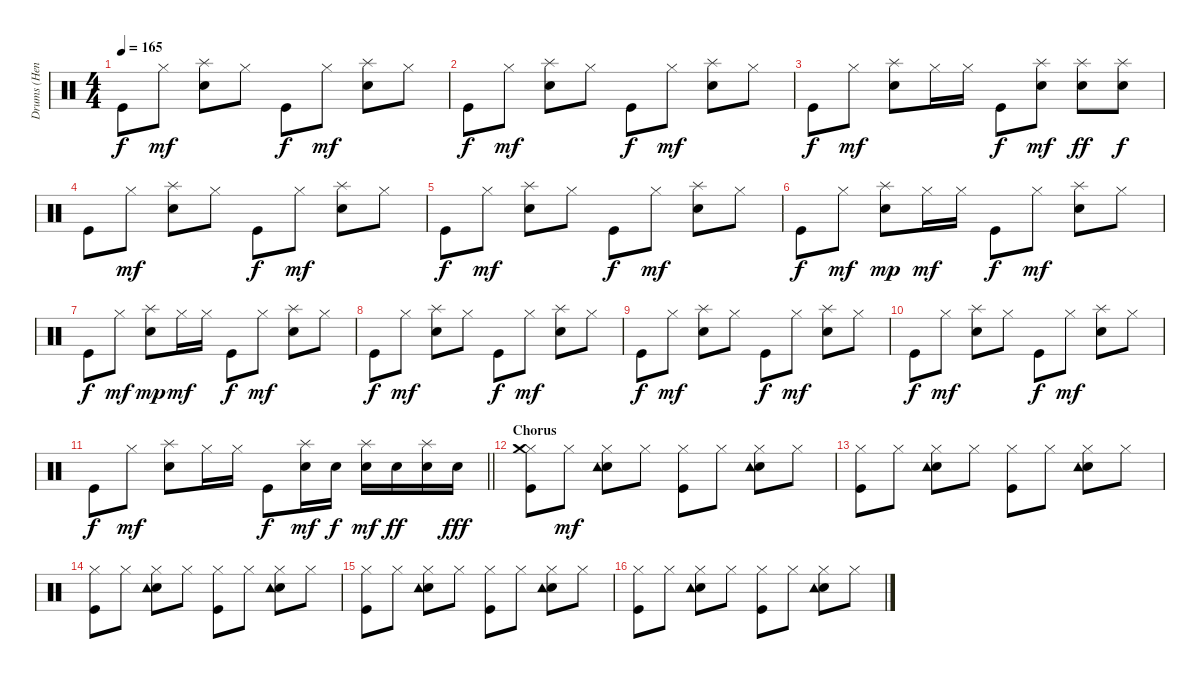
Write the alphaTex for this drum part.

\track ("Drums (Henry)" "Drums (Hen") {instrument percussion}
\staff {score}
\articulation defaults
\ts (4 4)
\tempo 165
\clef neutral
\ks c "Kick (hit)".8{dy f} "Hi-Hat (closed)".8{dy mf}
("Snare (hit) 2" "Splash (hit)").8 "Hi-Hat (closed)".8 "Kick (hit)".8{dy f} "Hi-Hat (closed)".8{dy mf} ("Snare (hit) 2" "Splash (hit)").8 "Hi-Hat (closed)".8 |
"Kick (hit)".8{dy f} "Hi-Hat (closed)".8{dy mf} ("Snare (hit) 2" "Splash (hit)").8 "Hi-Hat (closed)".8 "Kick (hit)".8{dy f} "Hi-Hat (closed)".8{dy mf} ("Snare (hit) 2" "Splash (hit)").8 "Hi-Hat (closed)".8 |
"Kick (hit)".8{dy f} "Hi-Hat (closed)".8{dy mf} ("Snare (hit) 2" "Splash (hit)").8 "Hi-Hat (closed)".16 "Hi-Hat (closed)".16 "Kick (hit)".8{dy f} ("Snare (hit) 2" "Splash (hit)").8{dy mf} ("Snare (hit) 2" "Splash (hit)").8{dy ff} ("Snare (hit) 2" "Splash (hit)").8{dy f} |
"Kick (hit)".8 "Hi-Hat (closed)".8{dy mf} ("Snare (hit) 2" "Splash (hit)").8 "Hi-Hat (closed)".8 "Kick (hit)".8{dy f} "Hi-Hat (closed)".8{dy mf} ("Snare (hit) 2" "Splash (hit)").8 "Hi-Hat (closed)".8 |
"Kick (hit)".8{dy f} "Hi-Hat (closed)".8{dy mf} ("Snare (hit) 2" "Splash (hit)").8 "Hi-Hat (closed)".8 "Kick (hit)".8{dy f} "Hi-Hat (closed)".8{dy mf} ("Snare (hit) 2" "Splash (hit)").8 "Hi-Hat (closed)".8 |
"Kick (hit)".8{dy f} "Hi-Hat (closed)".8{dy mf} ("Snare (hit) 2" "Splash (hit)").8{dy mp} "Hi-Hat (closed)".16{dy mf} "Hi-Hat (closed)".16 "Kick (hit)".8{dy f} "Hi-Hat (closed)".8{dy mf} ("Snare (hit) 2" "Splash (hit)").8 "Hi-Hat (closed)".8 |
"Kick (hit)".8{dy f} "Hi-Hat (closed)".8{dy mf} ("Snare (hit) 2" "Splash (hit)").8{dy mp} "Hi-Hat (closed)".16{dy mf} "Hi-Hat (closed)".16 "Kick (hit)".8{dy f} "Hi-Hat (closed)".8{dy mf} ("Snare (hit) 2" "Splash (hit)").8 "Hi-Hat (closed)".8 |
"Kick (hit)".8{dy f} "Hi-Hat (closed)".8{dy mf} ("Snare (hit) 2" "Splash (hit)").8 "Hi-Hat (closed)".8 "Kick (hit)".8{dy f} "Hi-Hat (closed)".8{dy mf} ("Snare (hit) 2" "Splash (hit)").8 "Hi-Hat (closed)".8 |
"Kick (hit)".8{dy f} "Hi-Hat (closed)".8{dy mf} ("Snare (hit) 2" "Splash (hit)").8 "Hi-Hat (closed)".8 "Kick (hit)".8{dy f} "Hi-Hat (closed)".8{dy mf} ("Snare (hit) 2" "Splash (hit)").8 "Hi-Hat (closed)".8 |
"Kick (hit)".8{dy f} "Hi-Hat (closed)".8{dy mf} ("Snare (hit) 2" "Splash (hit)").8 "Hi-Hat (closed)".8 "Kick (hit)".8{dy f} "Hi-Hat (closed)".8{dy mf} ("Snare (hit) 2" "Splash (hit)").8 "Hi-Hat (closed)".8 |
\barLineRight lightlight "Kick (hit)".8{dy f} "Hi-Hat (closed)".8{dy mf}
("Snare (hit) 2" "Splash (hit)").8 "Hi-Hat (closed)".16 "Hi-Hat (closed)".16 "Kick (hit)".8{dy f} ("Snare (hit) 2" "Splash (hit)").16{dy mf} "Snare (hit) 2".16{dy f} ("Snare (hit) 2" "Splash (hit)").16{dy mf} "Snare (hit) 2".16{dy ff} ("Snare (hit) 2" "Splash (hit)").16 "Snare (hit) 2".16{dy fff} |
\section ("" "Chorus")
("Kick (hit)" "Hi-Hat (closed)" "Crash medium (hit)").8 "Hi-Hat (closed)".8{dy mf} ("Snare (hit) 2" "Tambourine (hit)" "Hi-Hat (closed)").8 "Hi-Hat (closed)".8 ("Kick (hit)" "Hi-Hat (closed)").8 "Hi-Hat (closed)".8 ("Snare (hit) 2" "Tambourine (hit)" "Hi-Hat (closed)").8 "Hi-Hat (closed)".8 |
("Kick (hit)" "Hi-Hat (closed)").8 "Hi-Hat (closed)".8 ("Snare (hit) 2" "Tambourine (hit)" "Hi-Hat (closed)").8 "Hi-Hat (closed)".8 ("Kick (hit)" "Hi-Hat (closed)").8 "Hi-Hat (closed)".8 ("Snare (hit) 2" "Tambourine (hit)" "Hi-Hat (closed)").8 "Hi-Hat (closed)".8 |
("Kick (hit)" "Hi-Hat (closed)").8 "Hi-Hat (closed)".8 ("Snare (hit) 2" "Tambourine (hit)" "Hi-Hat (closed)").8 "Hi-Hat (closed)".8 ("Kick (hit)" "Hi-Hat (closed)").8 "Hi-Hat (closed)".8 ("Snare (hit) 2" "Tambourine (hit)" "Hi-Hat (closed)").8 "Hi-Hat (closed)".8 |
("Kick (hit)" "Hi-Hat (closed)").8 "Hi-Hat (closed)".8 ("Snare (hit) 2" "Tambourine (hit)" "Hi-Hat (closed)").8 "Hi-Hat (closed)".8 ("Kick (hit)" "Hi-Hat (closed)").8 "Hi-Hat (closed)".8 ("Snare (hit) 2" "Tambourine (hit)" "Hi-Hat (closed)").8 "Hi-Hat (closed)".8 |
("Kick (hit)" "Hi-Hat (closed)").8 "Hi-Hat (closed)".8 ("Snare (hit) 2" "Tambourine (hit)" "Hi-Hat (closed)").8 "Hi-Hat (closed)".8 ("Kick (hit)" "Hi-Hat (closed)").8 "Hi-Hat (closed)".8 ("Snare (hit) 2" "Tambourine (hit)" "Hi-Hat (closed)").8 "Hi-Hat (closed)".8
